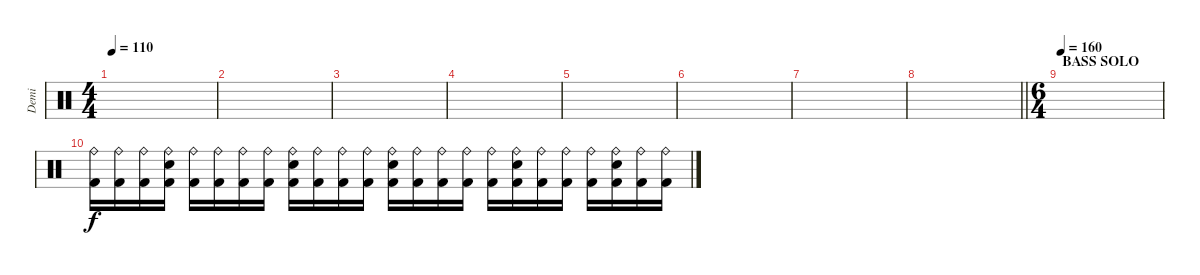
\track ("Demi" "Demi") {instrument percussion}
\staff {score}
\articulation defaults
\ts (4 4)
\tempo 110
\clef neutral
\ks c
|
|
|
|
|
|
|
\barLineRight lightlight
|
\ts (6 4)
\section ("" "BASS SOLO")
\tempo 160
|
("Ride (bell)" "Kick (hit) 2").16 ("Ride (bell)" "Kick (hit) 2").16 ("Ride (bell)" "Kick (hit) 2").16 ("Snare (hit) 2" "Ride (bell)" "Kick (hit) 2").16 ("Ride (bell)" "Kick (hit) 2").16 ("Ride (bell)" "Kick (hit) 2").16 ("Ride (bell)" "Kick (hit) 2").16 ("Ride (bell)" "Kick (hit) 2").16 ("Snare (hit) 2" "Ride (bell)" "Kick (hit) 2").16 ("Ride (bell)" "Kick (hit) 2").16 ("Ride (bell)" "Kick (hit) 2").16 ("Ride (bell)" "Kick (hit) 2").16 ("Snare (hit) 2" "Ride (bell)" "Kick (hit) 2").16 ("Ride (bell)" "Kick (hit) 2").16 ("Ride (bell)" "Kick (hit) 2").16 ("Ride (bell)" "Kick (hit) 2").16 ("Ride (bell)" "Kick (hit) 2").16 ("Snare (hit) 2" "Ride (bell)" "Kick (hit) 2").16 ("Ride (bell)" "Kick (hit) 2").16 ("Ride (bell)" "Kick (hit) 2").16 ("Ride (bell)" "Kick (hit) 2").16 ("Snare (hit) 2" "Ride (bell)" "Kick (hit) 2").16 ("Ride (bell)" "Kick (hit) 2").16 ("Ride (bell)" "Kick (hit) 2").16
